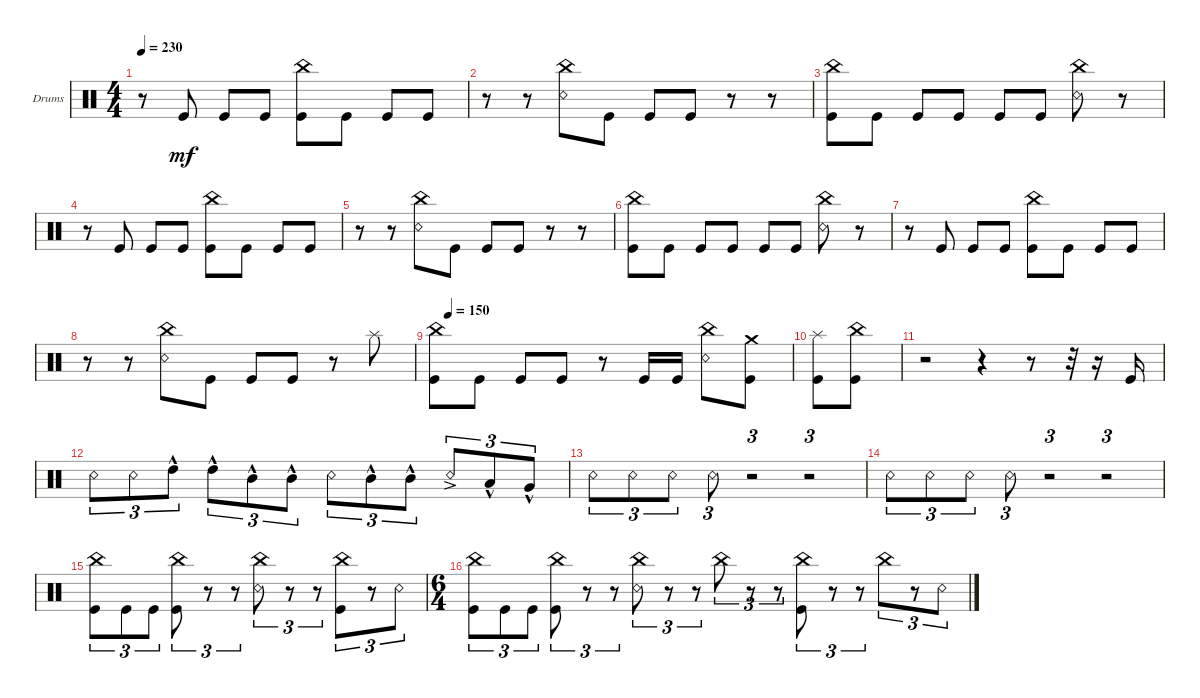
\bracketExtendMode groupsimilarinstruments
\firstSystemTrackNameOrientation horizontal
\otherSystemsTrackNameOrientation horizontal
\track ("Drumkit" "Drums") {instrument percussion}
\staff {score}
\articulation defaults
\ts (4 4)
\tempo 230
\clef neutral
\ks c
r.8{dy mf} "Kick (hit)".8 "Kick (hit)".8 "Kick (hit)".8 ("Kick (hit)" "China (hit)").8 "Kick (hit)".8 "Kick (hit)".8 "Kick (hit)".8 |
r.8 r.8 ("Snare (rim shot)" "China (hit)").8 "Kick (hit)".8 "Kick (hit)".8 "Kick (hit)".8 r.8 r.8 |
("Kick (hit)" "China (hit)").8 "Kick (hit)".8 "Kick (hit)".8 "Kick (hit)".8 "Kick (hit)".8 "Kick (hit)".8 ("Snare (rim shot)" "China (hit)").8 r.8 |
r.8 "Kick (hit)".8 "Kick (hit)".8 "Kick (hit)".8 ("Kick (hit)" "China (hit)").8 "Kick (hit)".8 "Kick (hit)".8 "Kick (hit)".8 |
r.8 r.8 ("Snare (rim shot)" "China (hit)").8 "Kick (hit)".8 "Kick (hit)".8 "Kick (hit)".8 r.8 r.8 |
("Kick (hit)" "China (hit)").8 "Kick (hit)".8 "Kick (hit)".8 "Kick (hit)".8 "Kick (hit)".8 "Kick (hit)".8 ("Snare (rim shot)" "China (hit)").8 r.8 |
r.8 "Kick (hit)".8 "Kick (hit)".8 "Kick (hit)".8 ("Kick (hit)" "China (hit)").8 "Kick (hit)".8 "Kick (hit)".8 "Kick (hit)".8 |
r.8 r.8 ("Snare (rim shot)" "China (hit)").8 "Kick (hit)".8 "Kick (hit)".8 "Kick (hit)".8 r.8 "Splash (hit)".8 |
\tempo (150 0.03125)
("Kick (hit)" "China (hit)").8 "Kick (hit)".8 "Kick (hit)".8 "Kick (hit)".8 r.8 "Kick (hit)".16 "Kick (hit)".16 ("Snare (rim shot)" "China (hit)").8 ("Kick (hit)" "Crash medium (hit)").8 |
("Kick (hit)" "Splash (hit)").8 ("Kick (hit)" "China (hit)").8 |
r.2 r.4 r.8 r.32 r.16 "Kick (hit)".16 |
"Snare (rim shot)".8{tu (3 2)} "Snare (rim shot)".8{tu (3 2)} "High Tom (hit)"{hac}.8{tu (3 2)} "High Tom (hit)"{hac}.8{tu (3 2)} "Mid Tom (hit)"{hac}.8{tu (3 2)} "Mid Tom (hit)"{hac}.8{tu (3 2)} "Snare (rim shot)".8{tu (3 2)} "Mid Tom (hit)"{hac}.8{tu (3 2)} "Mid Tom (hit)"{hac}.8{tu (3 2)} "Snare (rim shot)"{ac}.8{tu (3 2)} "Low Tom (hit)"{hac}.8{tu (3 2)} "Very Low Tom (hit)"{hac}.8{tu (3 2)} |
"Snare (rim shot)".8{tu (3 2)} "Snare (rim shot)".8{tu (3 2)} "Snare (rim shot)".8{tu (3 2)} "Snare (rim shot)".8{tu (3 2)} r.2{tu (3 2)} r.2{tu (3 2)} |
"Snare (rim shot)".8{tu (3 2)} "Snare (rim shot)".8{tu (3 2)} "Snare (rim shot)".8{tu (3 2)} "Snare (rim shot)".8{tu (3 2)} r.2{tu (3 2)} r.2{tu (3 2)} |
("Kick (hit)" "China (hit)").8{tu (3 2)} "Kick (hit)".8{tu (3 2)} "Kick (hit)".8{tu (3 2)} ("Kick (hit)" "China (hit)").8{tu (3 2)} r.8{tu (3 2)} r.8{tu (3 2)} ("Snare (rim shot)" "China (hit)").8{tu (3 2)} r.8{tu (3 2)} r.8{tu (3 2)} ("Kick (hit)" "China (hit)").8{tu (3 2)} r.8{tu (3 2)} "Snare (rim shot)".8{tu (3 2)} |
\ts (6 4)
("Kick (hit)" "China (hit)").8{tu (3 2)} "Kick (hit)".8{tu (3 2)} "Kick (hit)".8{tu (3 2)} ("Kick (hit)" "China (hit)").8{tu (3 2)} r.8{tu (3 2)} r.8{tu (3 2)} ("Snare (rim shot)" "China (hit)").8{tu (3 2)} r.8{tu (3 2)} r.8{tu (3 2)} "China (hit)".8{tu (3 2)} r.8{tu (3 2)} r.8{tu (3 2)} ("China (hit)" "Kick (hit)").8{tu (3 2)} r.8{tu (3 2)} r.8{tu (3 2)} "China (hit)".8{tu (3 2)} r.8{tu (3 2)} "Snare (rim shot)".8{tu (3 2)}
